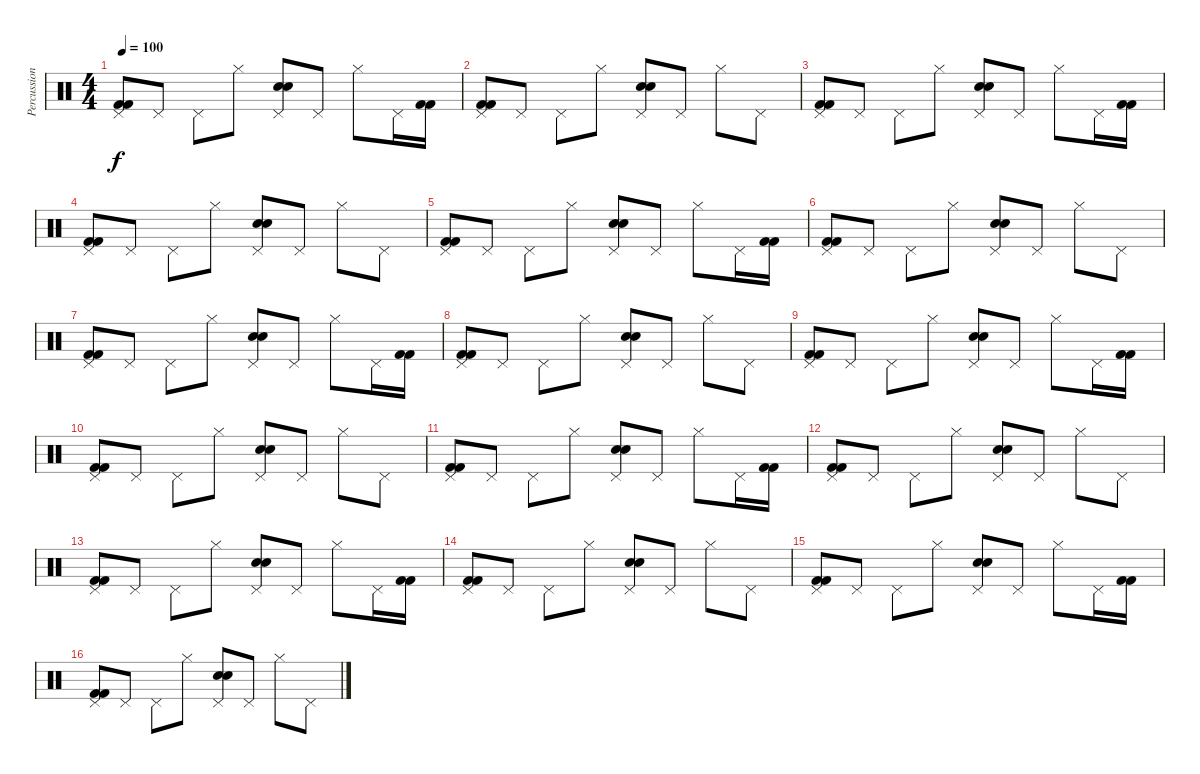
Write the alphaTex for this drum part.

\track ("Percussioni" "Percussion") {instrument percussion}
\staff {score}
\articulation defaults
\ts (4 4)
\tempo 100
\clef neutral
\ks c
("Pedal Hi-Hat (hit)" "Kick (hit) 2" "Kick (hit) 2").8{dy f} "Pedal Hi-Hat (hit)".8 "Pedal Hi-Hat (hit)".8 "Hi-Hat (closed)".8 ("Pedal Hi-Hat (hit)" "Snare (hit) 2" "Snare (hit) 2").8 "Pedal Hi-Hat (hit)".8 "Hi-Hat (closed)".8 "Pedal Hi-Hat (hit)".16 ("Kick (hit) 2" "Kick (hit) 2").16 |
("Pedal Hi-Hat (hit)" "Kick (hit) 2" "Kick (hit) 2").8 "Pedal Hi-Hat (hit)".8 "Pedal Hi-Hat (hit)".8 "Hi-Hat (closed)".8 ("Pedal Hi-Hat (hit)" "Snare (hit) 2" "Snare (hit) 2").8 "Pedal Hi-Hat (hit)".8 "Hi-Hat (closed)".8 "Pedal Hi-Hat (hit)".8 |
("Pedal Hi-Hat (hit)" "Kick (hit) 2" "Kick (hit) 2").8 "Pedal Hi-Hat (hit)".8 "Pedal Hi-Hat (hit)".8 "Hi-Hat (closed)".8 ("Pedal Hi-Hat (hit)" "Snare (hit) 2" "Snare (hit) 2").8 "Pedal Hi-Hat (hit)".8 "Hi-Hat (closed)".8 "Pedal Hi-Hat (hit)".16 ("Kick (hit) 2" "Kick (hit) 2").16 |
("Pedal Hi-Hat (hit)" "Kick (hit) 2" "Kick (hit) 2").8 "Pedal Hi-Hat (hit)".8 "Pedal Hi-Hat (hit)".8 "Hi-Hat (closed)".8 ("Pedal Hi-Hat (hit)" "Snare (hit) 2" "Snare (hit) 2").8 "Pedal Hi-Hat (hit)".8 "Hi-Hat (closed)".8 "Pedal Hi-Hat (hit)".8 |
("Pedal Hi-Hat (hit)" "Kick (hit) 2" "Kick (hit) 2").8 "Pedal Hi-Hat (hit)".8 "Pedal Hi-Hat (hit)".8 "Hi-Hat (closed)".8 ("Pedal Hi-Hat (hit)" "Snare (hit) 2" "Snare (hit) 2").8 "Pedal Hi-Hat (hit)".8 "Hi-Hat (closed)".8 "Pedal Hi-Hat (hit)".16 ("Kick (hit) 2" "Kick (hit) 2").16 |
("Pedal Hi-Hat (hit)" "Kick (hit) 2" "Kick (hit) 2").8 "Pedal Hi-Hat (hit)".8 "Pedal Hi-Hat (hit)".8 "Hi-Hat (closed)".8 ("Pedal Hi-Hat (hit)" "Snare (hit) 2" "Snare (hit) 2").8 "Pedal Hi-Hat (hit)".8 "Hi-Hat (closed)".8 "Pedal Hi-Hat (hit)".8 |
("Pedal Hi-Hat (hit)" "Kick (hit) 2" "Kick (hit) 2").8 "Pedal Hi-Hat (hit)".8 "Pedal Hi-Hat (hit)".8 "Hi-Hat (closed)".8 ("Pedal Hi-Hat (hit)" "Snare (hit) 2" "Snare (hit) 2").8 "Pedal Hi-Hat (hit)".8 "Hi-Hat (closed)".8 "Pedal Hi-Hat (hit)".16 ("Kick (hit) 2" "Kick (hit) 2").16 |
("Pedal Hi-Hat (hit)" "Kick (hit) 2" "Kick (hit) 2").8 "Pedal Hi-Hat (hit)".8 "Pedal Hi-Hat (hit)".8 "Hi-Hat (closed)".8 ("Pedal Hi-Hat (hit)" "Snare (hit) 2" "Snare (hit) 2").8 "Pedal Hi-Hat (hit)".8 "Hi-Hat (closed)".8 "Pedal Hi-Hat (hit)".8 |
("Pedal Hi-Hat (hit)" "Kick (hit) 2" "Kick (hit) 2").8 "Pedal Hi-Hat (hit)".8 "Pedal Hi-Hat (hit)".8 "Hi-Hat (closed)".8 ("Pedal Hi-Hat (hit)" "Snare (hit) 2" "Snare (hit) 2").8 "Pedal Hi-Hat (hit)".8 "Hi-Hat (closed)".8 "Pedal Hi-Hat (hit)".16 ("Kick (hit) 2" "Kick (hit) 2").16 |
("Pedal Hi-Hat (hit)" "Kick (hit) 2" "Kick (hit) 2").8 "Pedal Hi-Hat (hit)".8 "Pedal Hi-Hat (hit)".8 "Hi-Hat (closed)".8 ("Pedal Hi-Hat (hit)" "Snare (hit) 2" "Snare (hit) 2").8 "Pedal Hi-Hat (hit)".8 "Hi-Hat (closed)".8 "Pedal Hi-Hat (hit)".8 |
("Pedal Hi-Hat (hit)" "Kick (hit) 2" "Kick (hit) 2").8 "Pedal Hi-Hat (hit)".8 "Pedal Hi-Hat (hit)".8 "Hi-Hat (closed)".8 ("Pedal Hi-Hat (hit)" "Snare (hit) 2" "Snare (hit) 2").8 "Pedal Hi-Hat (hit)".8 "Hi-Hat (closed)".8 "Pedal Hi-Hat (hit)".16 ("Kick (hit) 2" "Kick (hit) 2").16 |
("Pedal Hi-Hat (hit)" "Kick (hit) 2" "Kick (hit) 2").8 "Pedal Hi-Hat (hit)".8 "Pedal Hi-Hat (hit)".8 "Hi-Hat (closed)".8 ("Pedal Hi-Hat (hit)" "Snare (hit) 2" "Snare (hit) 2").8 "Pedal Hi-Hat (hit)".8 "Hi-Hat (closed)".8 "Pedal Hi-Hat (hit)".8 |
("Pedal Hi-Hat (hit)" "Kick (hit) 2" "Kick (hit) 2").8 "Pedal Hi-Hat (hit)".8 "Pedal Hi-Hat (hit)".8 "Hi-Hat (closed)".8 ("Pedal Hi-Hat (hit)" "Snare (hit) 2" "Snare (hit) 2").8 "Pedal Hi-Hat (hit)".8 "Hi-Hat (closed)".8 "Pedal Hi-Hat (hit)".16 ("Kick (hit) 2" "Kick (hit) 2").16 |
("Pedal Hi-Hat (hit)" "Kick (hit) 2" "Kick (hit) 2").8 "Pedal Hi-Hat (hit)".8 "Pedal Hi-Hat (hit)".8 "Hi-Hat (closed)".8 ("Pedal Hi-Hat (hit)" "Snare (hit) 2" "Snare (hit) 2").8 "Pedal Hi-Hat (hit)".8 "Hi-Hat (closed)".8 "Pedal Hi-Hat (hit)".8 |
("Pedal Hi-Hat (hit)" "Kick (hit) 2" "Kick (hit) 2").8 "Pedal Hi-Hat (hit)".8 "Pedal Hi-Hat (hit)".8 "Hi-Hat (closed)".8 ("Pedal Hi-Hat (hit)" "Snare (hit) 2" "Snare (hit) 2").8 "Pedal Hi-Hat (hit)".8 "Hi-Hat (closed)".8 "Pedal Hi-Hat (hit)".16 ("Kick (hit) 2" "Kick (hit) 2").16 |
("Pedal Hi-Hat (hit)" "Kick (hit) 2" "Kick (hit) 2").8 "Pedal Hi-Hat (hit)".8 "Pedal Hi-Hat (hit)".8 "Hi-Hat (closed)".8 ("Pedal Hi-Hat (hit)" "Snare (hit) 2" "Snare (hit) 2").8 "Pedal Hi-Hat (hit)".8 "Hi-Hat (closed)".8 "Pedal Hi-Hat (hit)".8
